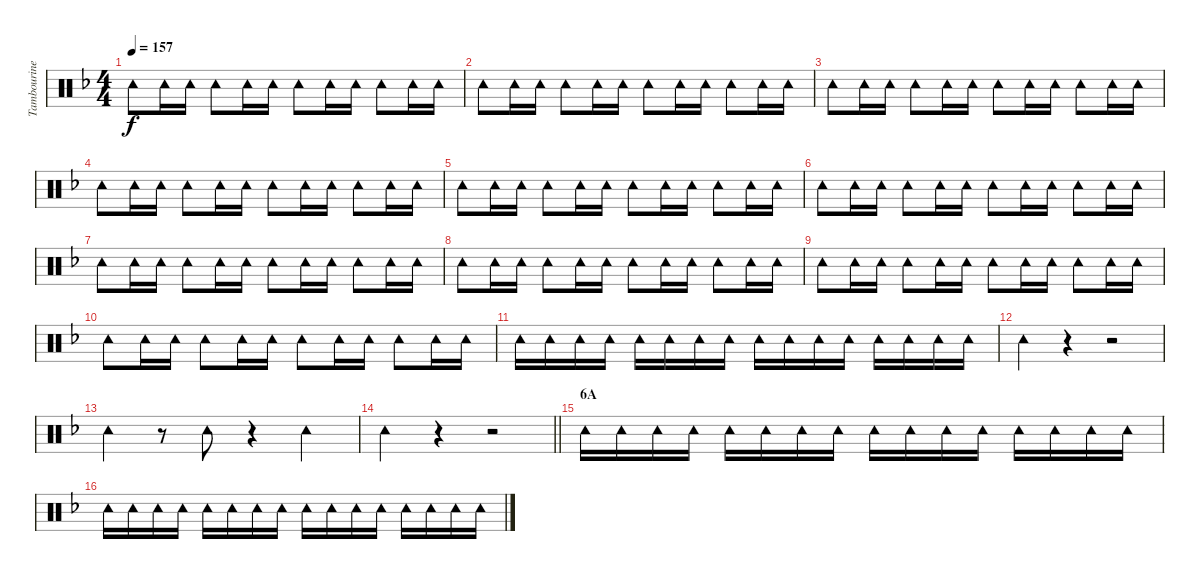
\track ("Tambourine" "Tambourine") {instrument percussion}
\staff {score}
\articulation defaults
\ts (4 4)
\tempo 157
\clef neutral
\ks f "Tambourine (hit)".8{dy f} "Tambourine (hit)".16 "Tambourine (hit)".16 "Tambourine (hit)".8 "Tambourine (hit)".16 "Tambourine (hit)".16 "Tambourine (hit)".8 "Tambourine (hit)".16 "Tambourine (hit)".16 "Tambourine (hit)".8 "Tambourine (hit)".16 "Tambourine (hit)".16
|
"Tambourine (hit)".8 "Tambourine (hit)".16 "Tambourine (hit)".16 "Tambourine (hit)".8 "Tambourine (hit)".16 "Tambourine (hit)".16 "Tambourine (hit)".8 "Tambourine (hit)".16 "Tambourine (hit)".16 "Tambourine (hit)".8 "Tambourine (hit)".16 "Tambourine (hit)".16 |
"Tambourine (hit)".8 "Tambourine (hit)".16 "Tambourine (hit)".16 "Tambourine (hit)".8 "Tambourine (hit)".16 "Tambourine (hit)".16 "Tambourine (hit)".8 "Tambourine (hit)".16 "Tambourine (hit)".16 "Tambourine (hit)".8 "Tambourine (hit)".16 "Tambourine (hit)".16 |
"Tambourine (hit)".8 "Tambourine (hit)".16 "Tambourine (hit)".16 "Tambourine (hit)".8 "Tambourine (hit)".16 "Tambourine (hit)".16 "Tambourine (hit)".8 "Tambourine (hit)".16 "Tambourine (hit)".16 "Tambourine (hit)".8 "Tambourine (hit)".16 "Tambourine (hit)".16 |
"Tambourine (hit)".8 "Tambourine (hit)".16 "Tambourine (hit)".16 "Tambourine (hit)".8 "Tambourine (hit)".16 "Tambourine (hit)".16 "Tambourine (hit)".8 "Tambourine (hit)".16 "Tambourine (hit)".16 "Tambourine (hit)".8 "Tambourine (hit)".16 "Tambourine (hit)".16 |
"Tambourine (hit)".8 "Tambourine (hit)".16 "Tambourine (hit)".16 "Tambourine (hit)".8 "Tambourine (hit)".16 "Tambourine (hit)".16 "Tambourine (hit)".8 "Tambourine (hit)".16 "Tambourine (hit)".16 "Tambourine (hit)".8 "Tambourine (hit)".16 "Tambourine (hit)".16 |
"Tambourine (hit)".8 "Tambourine (hit)".16 "Tambourine (hit)".16 "Tambourine (hit)".8 "Tambourine (hit)".16 "Tambourine (hit)".16 "Tambourine (hit)".8 "Tambourine (hit)".16 "Tambourine (hit)".16 "Tambourine (hit)".8 "Tambourine (hit)".16 "Tambourine (hit)".16 |
"Tambourine (hit)".8 "Tambourine (hit)".16 "Tambourine (hit)".16 "Tambourine (hit)".8 "Tambourine (hit)".16 "Tambourine (hit)".16 "Tambourine (hit)".8 "Tambourine (hit)".16 "Tambourine (hit)".16 "Tambourine (hit)".8 "Tambourine (hit)".16 "Tambourine (hit)".16 |
"Tambourine (hit)".8 "Tambourine (hit)".16 "Tambourine (hit)".16 "Tambourine (hit)".8 "Tambourine (hit)".16 "Tambourine (hit)".16 "Tambourine (hit)".8 "Tambourine (hit)".16 "Tambourine (hit)".16 "Tambourine (hit)".8 "Tambourine (hit)".16 "Tambourine (hit)".16 |
"Tambourine (hit)".8 "Tambourine (hit)".16 "Tambourine (hit)".16 "Tambourine (hit)".8 "Tambourine (hit)".16 "Tambourine (hit)".16 "Tambourine (hit)".8 "Tambourine (hit)".16 "Tambourine (hit)".16 "Tambourine (hit)".8 "Tambourine (hit)".16 "Tambourine (hit)".16 |
"Tambourine (hit)".16 "Tambourine (hit)".16 "Tambourine (hit)".16 "Tambourine (hit)".16 "Tambourine (hit)".16 "Tambourine (hit)".16 "Tambourine (hit)".16 "Tambourine (hit)".16 "Tambourine (hit)".16 "Tambourine (hit)".16 "Tambourine (hit)".16 "Tambourine (hit)".16 "Tambourine (hit)".16 "Tambourine (hit)".16 "Tambourine (hit)".16 "Tambourine (hit)".16 |
"Tambourine (hit)".4 r.4 r.2 |
"Tambourine (hit)".4 r.8 "Tambourine (hit)".8 r.4 "Tambourine (hit)".4 |
\barLineRight lightlight "Tambourine (hit)".4
r.4 r.2 |
\section ("" "6A")
"Tambourine (hit)".16 "Tambourine (hit)".16 "Tambourine (hit)".16 "Tambourine (hit)".16 "Tambourine (hit)".16 "Tambourine (hit)".16 "Tambourine (hit)".16 "Tambourine (hit)".16 "Tambourine (hit)".16 "Tambourine (hit)".16 "Tambourine (hit)".16 "Tambourine (hit)".16 "Tambourine (hit)".16 "Tambourine (hit)".16 "Tambourine (hit)".16 "Tambourine (hit)".16 |
"Tambourine (hit)".16 "Tambourine (hit)".16 "Tambourine (hit)".16 "Tambourine (hit)".16 "Tambourine (hit)".16 "Tambourine (hit)".16 "Tambourine (hit)".16 "Tambourine (hit)".16 "Tambourine (hit)".16 "Tambourine (hit)".16 "Tambourine (hit)".16 "Tambourine (hit)".16 "Tambourine (hit)".16 "Tambourine (hit)".16 "Tambourine (hit)".16 "Tambourine (hit)".16
